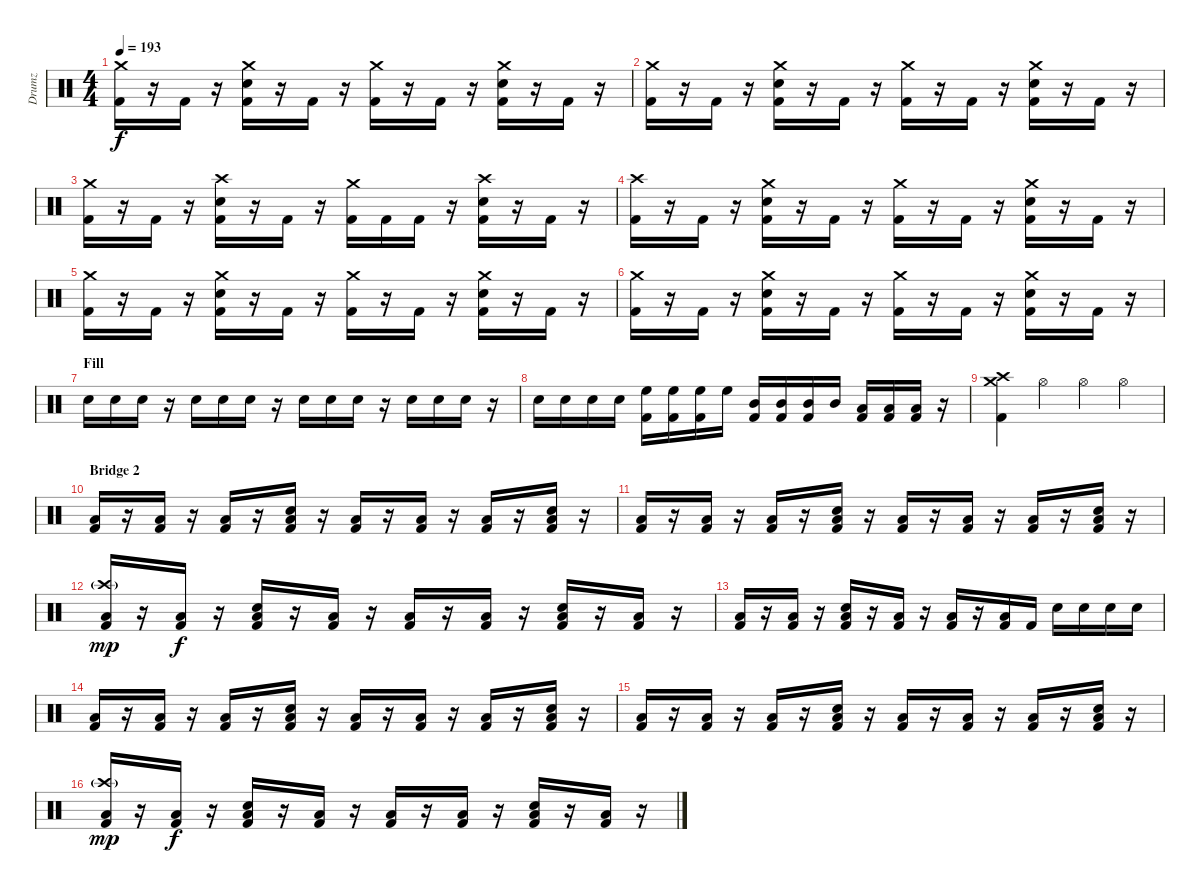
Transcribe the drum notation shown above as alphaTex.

\track ("Drumz" "Drumz") {instrument percussion}
\staff {score}
\articulation defaults
\ts (4 4)
\tempo 193
\clef neutral
\ks c
("Crash medium (hit)" "Kick (hit) 2").16{dy f} r.16 "Kick (hit) 2".16 r.16 ("Crash medium (hit)" "Electric Snare (hit)" "Kick (hit) 2").16 r.16 "Kick (hit) 2".16 r.16 ("Crash medium (hit)" "Kick (hit) 2").16 r.16 "Kick (hit) 2".16 r.16 ("Crash medium (hit)" "Electric Snare (hit)" "Kick (hit) 2").16 r.16 "Kick (hit) 2".16 r.16 |
("Crash medium (hit)" "Kick (hit) 2").16 r.16 "Kick (hit) 2".16 r.16 ("Crash medium (hit)" "Electric Snare (hit)" "Kick (hit) 2").16 r.16 "Kick (hit) 2".16 r.16 ("Crash medium (hit)" "Kick (hit) 2").16 r.16 "Kick (hit) 2".16 r.16 ("Crash medium (hit)" "Electric Snare (hit)" "Kick (hit) 2").16 r.16 "Kick (hit) 2".16 r.16 |
("Crash medium (hit)" "Kick (hit) 2").16 r.16 "Kick (hit) 2".16 r.16 ("Crash high (hit)" "Electric Snare (hit)" "Kick (hit) 2").16 r.16 "Kick (hit) 2".16 r.16 ("Crash medium (hit)" "Kick (hit) 2").16 "Kick (hit) 2".16 "Kick (hit) 2".16 r.16 ("Crash high (hit)" "Electric Snare (hit)" "Kick (hit) 2").16 r.16 "Kick (hit) 2".16 r.16 |
("Crash high (hit)" "Kick (hit) 2").16 r.16 "Kick (hit) 2".16 r.16 ("Crash medium (hit)" "Electric Snare (hit)" "Kick (hit) 2").16 r.16 "Kick (hit) 2".16 r.16 ("Crash medium (hit)" "Kick (hit) 2").16 r.16 "Kick (hit) 2".16 r.16 ("Crash medium (hit)" "Electric Snare (hit)" "Kick (hit) 2").16 r.16 "Kick (hit) 2".16 r.16 |
("Crash medium (hit)" "Kick (hit) 2").16 r.16 "Kick (hit) 2".16 r.16 ("Crash medium (hit)" "Electric Snare (hit)" "Kick (hit) 2").16 r.16 "Kick (hit) 2".16 r.16 ("Crash medium (hit)" "Kick (hit) 2").16 r.16 "Kick (hit) 2".16 r.16 ("Crash medium (hit)" "Electric Snare (hit)" "Kick (hit) 2").16 r.16 "Kick (hit) 2".16 r.16 |
("Crash medium (hit)" "Kick (hit) 2").16 r.16 "Kick (hit) 2".16 r.16 ("Crash medium (hit)" "Electric Snare (hit)" "Kick (hit) 2").16 r.16 "Kick (hit) 2".16 r.16 ("Crash medium (hit)" "Kick (hit) 2").16 r.16 "Kick (hit) 2".16 r.16 ("Crash medium (hit)" "Electric Snare (hit)" "Kick (hit) 2").16 r.16 "Kick (hit) 2".16 r.16 |
\section ("" "Fill")
"Electric Snare (hit)".16 "Electric Snare (hit)".16 "Electric Snare (hit)".16 r.16 "Electric Snare (hit)".16 "Electric Snare (hit)".16 "Electric Snare (hit)".16 r.16 "Electric Snare (hit)".16 "Electric Snare (hit)".16 "Electric Snare (hit)".16 r.16 "Electric Snare (hit)".16 "Electric Snare (hit)".16 "Electric Snare (hit)".16 r.16 |
"Electric Snare (hit)".16 "Electric Snare (hit)".16 "Electric Snare (hit)".16 "Electric Snare (hit)".16 ("High Floor Tom (hit)" "Kick (hit) 2").16 ("High Floor Tom (hit)" "Kick (hit) 2").16 ("High Floor Tom (hit)" "Kick (hit) 2").16 "High Floor Tom (hit)".16 ("Mid Tom (hit)" "Kick (hit) 2").16 ("Mid Tom (hit)" "Kick (hit) 2").16 ("Mid Tom (hit)" "Kick (hit) 2").16 "Mid Tom (hit)".16 ("Low Tom (hit)" "Kick (hit) 2").16 ("Low Tom (hit)" "Kick (hit) 2").16 ("Low Tom (hit)" "Kick (hit) 2").16 r.16 |
("Crash medium (hit)" "Crash high (hit)" "Kick (hit) 2").4 "Hi-Hat (open)".4 "Hi-Hat (open)".4 "Hi-Hat (open)".4 |
\section ("" "Bridge 2")
("Low Tom (hit)" "Kick (hit) 2").16 r.16 ("Low Tom (hit)" "Kick (hit) 2").16 r.16 ("Low Tom (hit)" "Kick (hit) 2").16 r.16 ("Electric Snare (hit)" "Low Tom (hit)" "Kick (hit) 2").16 r.16 ("Low Tom (hit)" "Kick (hit) 2").16 r.16 ("Low Tom (hit)" "Kick (hit) 2").16 r.16 ("Low Tom (hit)" "Kick (hit) 2").16 r.16 ("Electric Snare (hit)" "Low Tom (hit)" "Kick (hit) 2").16 r.16 |
("Low Tom (hit)" "Kick (hit) 2").16 r.16 ("Low Tom (hit)" "Kick (hit) 2").16 r.16 ("Low Tom (hit)" "Kick (hit) 2").16 r.16 ("Electric Snare (hit)" "Low Tom (hit)" "Kick (hit) 2").16 r.16 ("Low Tom (hit)" "Kick (hit) 2").16 r.16 ("Low Tom (hit)" "Kick (hit) 2").16 r.16 ("Low Tom (hit)" "Kick (hit) 2").16 r.16 ("Electric Snare (hit)" "Low Tom (hit)" "Kick (hit) 2").16 r.16 |
("Crash high (hit)"{g} "Low Tom (hit)" "Kick (hit) 2").16{dy mp} r.16 ("Low Tom (hit)" "Kick (hit) 2").16{dy f} r.16 ("Electric Snare (hit)" "Low Tom (hit)" "Kick (hit) 2").16 r.16 ("Low Tom (hit)" "Kick (hit) 2").16 r.16 ("Low Tom (hit)" "Kick (hit) 2").16 r.16 ("Low Tom (hit)" "Kick (hit) 2").16 r.16 ("Electric Snare (hit)" "Low Tom (hit)" "Kick (hit) 2").16 r.16 ("Low Tom (hit)" "Kick (hit) 2").16 r.16 |
("Low Tom (hit)" "Kick (hit) 2").16 r.16 ("Low Tom (hit)" "Kick (hit) 2").16 r.16 ("Electric Snare (hit)" "Low Tom (hit)" "Kick (hit) 2").16 r.16 ("Low Tom (hit)" "Kick (hit) 2").16 r.16 ("Low Tom (hit)" "Kick (hit) 2").16 r.16 ("Low Tom (hit)" "Kick (hit) 2").16 "Kick (hit) 2".16 "Electric Snare (hit)".16 "Electric Snare (hit)".16 "Electric Snare (hit)".16 "Electric Snare (hit)".16 |
("Low Tom (hit)" "Kick (hit) 2").16 r.16 ("Low Tom (hit)" "Kick (hit) 2").16 r.16 ("Low Tom (hit)" "Kick (hit) 2").16 r.16 ("Electric Snare (hit)" "Low Tom (hit)" "Kick (hit) 2").16 r.16 ("Low Tom (hit)" "Kick (hit) 2").16 r.16 ("Low Tom (hit)" "Kick (hit) 2").16 r.16 ("Low Tom (hit)" "Kick (hit) 2").16 r.16 ("Electric Snare (hit)" "Low Tom (hit)" "Kick (hit) 2").16 r.16 |
("Low Tom (hit)" "Kick (hit) 2").16 r.16 ("Low Tom (hit)" "Kick (hit) 2").16 r.16 ("Low Tom (hit)" "Kick (hit) 2").16 r.16 ("Electric Snare (hit)" "Low Tom (hit)" "Kick (hit) 2").16 r.16 ("Low Tom (hit)" "Kick (hit) 2").16 r.16 ("Low Tom (hit)" "Kick (hit) 2").16 r.16 ("Low Tom (hit)" "Kick (hit) 2").16 r.16 ("Electric Snare (hit)" "Low Tom (hit)" "Kick (hit) 2").16 r.16 |
("Crash high (hit)"{g} "Low Tom (hit)" "Kick (hit) 2").16{dy mp} r.16 ("Low Tom (hit)" "Kick (hit) 2").16{dy f} r.16 ("Electric Snare (hit)" "Low Tom (hit)" "Kick (hit) 2").16 r.16 ("Low Tom (hit)" "Kick (hit) 2").16 r.16 ("Low Tom (hit)" "Kick (hit) 2").16 r.16 ("Low Tom (hit)" "Kick (hit) 2").16 r.16 ("Electric Snare (hit)" "Low Tom (hit)" "Kick (hit) 2").16 r.16 ("Low Tom (hit)" "Kick (hit) 2").16 r.16
